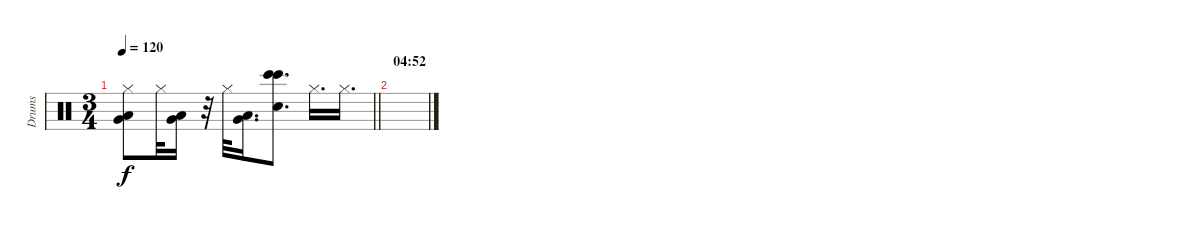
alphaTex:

\track ("Drums" "Drums") {instrument percussion}
\staff {score}
\articulation defaults
\ts (3 4)
\tempo 120
\clef neutral
\barLineRight lightlight
\ks c
("Hi-Hat (closed)" "Very Low Tom (hit)" "Low Floor Tom (hit)").8{dy f} "Hi-Hat (closed)".32 ("Very Low Tom (hit)" "Low Floor Tom (hit)").16 r.32 "Hi-Hat (closed)".32 ("Very Low Tom (hit)" "Low Floor Tom (hit)").16{d} ("Bongo High (hit)" "Electric Snare (hit)" "Bongo High (hit)").8{d} "Hi-Hat (closed)".16{d} "Hi-Hat (closed)".16{d} |
\section ("" "04:52")
